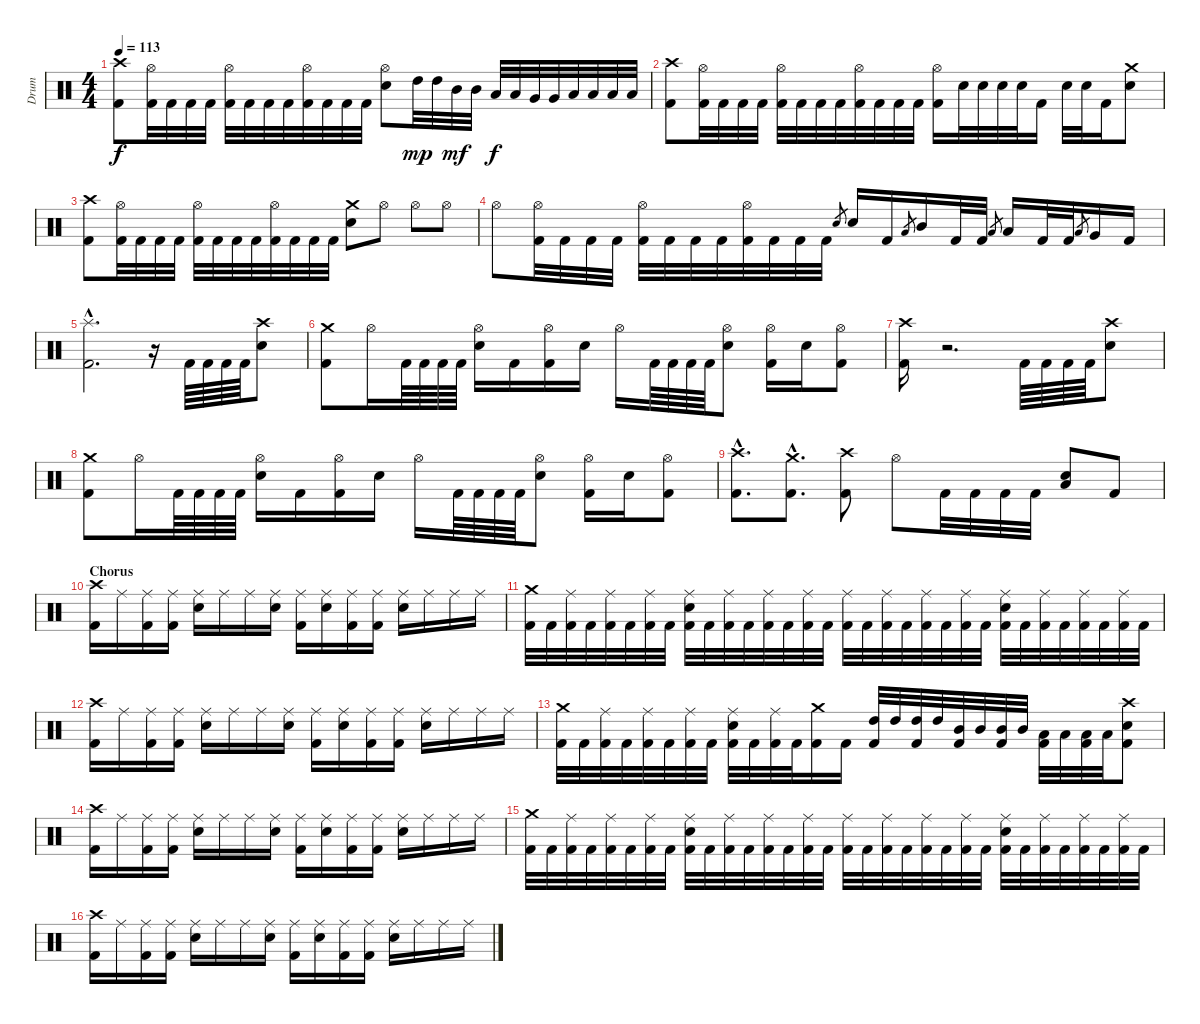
\track ("Drum" "Drum") {instrument percussion}
\staff {score}
\articulation defaults
\ts (4 4)
\tempo 113
\clef neutral
\ks c
("Crash high (hit)" "Kick (hit) 2").8{dy f} ("Hi-Hat (open)" "Kick (hit) 2").32 "Kick (hit) 2".32 "Kick (hit) 2".32 "Kick (hit) 2".32 ("Hi-Hat (open)" "Kick (hit) 2").32 "Kick (hit) 2".32 "Kick (hit) 2".32 "Kick (hit) 2".32 ("Hi-Hat (open)" "Kick (hit) 2").32 "Kick (hit) 2".32 "Kick (hit) 2".32 "Kick (hit) 2".32 ("Hi-Hat (open)" "Electric Snare (hit)").8 "High Tom (hit)".32{dy mp} "High Tom (hit)".32 "Mid Tom (hit)".32{dy mf} "Mid Tom (hit)".32 "Low Tom (hit)".32{dy f} "Low Tom (hit)".32 "Very Low Tom (hit)".32 "Very Low Tom (hit)".32 "Low Floor Tom (hit)".32 "Low Floor Tom (hit)".32 "Low Floor Tom (hit)".32 "Low Floor Tom (hit)".32 |
("Crash high (hit)" "Kick (hit) 2").8 ("Hi-Hat (open)" "Kick (hit) 2").32 "Kick (hit) 2".32 "Kick (hit) 2".32 "Kick (hit) 2".32 ("Hi-Hat (open)" "Kick (hit) 2").32 "Kick (hit) 2".32 "Kick (hit) 2".32 "Kick (hit) 2".32 ("Hi-Hat (open)" "Kick (hit) 2").32 "Kick (hit) 2".32 "Kick (hit) 2".32 "Kick (hit) 2".32 ("Hi-Hat (open)" "Kick (hit) 2").16 "Electric Snare (hit)".32 "Electric Snare (hit)".32 "Electric Snare (hit)".32 "Electric Snare (hit)".32 "Kick (hit) 2".16 "Electric Snare (hit)".32 "Electric Snare (hit)".32 "Kick (hit) 2".16 ("Crash medium (hit)" "Electric Snare (hit)").8 |
("Crash high (hit)" "Kick (hit) 2").8 ("Hi-Hat (open)" "Kick (hit) 2").32 "Kick (hit) 2".32 "Kick (hit) 2".32 "Kick (hit) 2".32 ("Hi-Hat (open)" "Kick (hit) 2").32 "Kick (hit) 2".32 "Kick (hit) 2".32 "Kick (hit) 2".32 ("Hi-Hat (open)" "Kick (hit) 2").32 "Kick (hit) 2".32 "Kick (hit) 2".32 "Kick (hit) 2".32 ("Crash medium (hit)" "Electric Snare (hit)").8 "Hi-Hat (open)".8 "Hi-Hat (open)".8 "Hi-Hat (open)".8 |
"Hi-Hat (open)".8 ("Hi-Hat (open)" "Kick (hit) 2").32 "Kick (hit) 2".32 "Kick (hit) 2".32 "Kick (hit) 2".32 ("Hi-Hat (open)" "Kick (hit) 2").32 "Kick (hit) 2".32 "Kick (hit) 2".32 "Kick (hit) 2".32 ("Hi-Hat (open)" "Kick (hit) 2").32 "Kick (hit) 2".32 "Kick (hit) 2".32 "Kick (hit) 2".32 "Electric Snare (hit)".8{gr} "Electric Snare (hit)".16 "Kick (hit) 2".16 "Low Floor Tom (hit)".8{gr} "Mid Tom (hit)".16 "Kick (hit) 2".32 "Kick (hit) 2".32 "Low Floor Tom (hit)".8{gr} "Low Tom (hit)".16 "Kick (hit) 2".32 "Kick (hit) 2".32 "Low Floor Tom (hit)".8{gr} "Very Low Tom (hit)".16 "Kick (hit) 2".16 |
("Splash (hit)"{hac} "Kick (hit) 2"{hac}).2{d} r.16 "Kick (hit) 2".64 "Kick (hit) 2".64 "Kick (hit) 2".64 "Kick (hit) 2".64 ("Crash high (hit)" "Electric Snare (hit)").8 |
("Crash medium (hit)" "Kick (hit) 2").8 "Hi-Hat (open)".16 "Kick (hit) 2".64 "Kick (hit) 2".64 "Kick (hit) 2".64 "Kick (hit) 2".64 ("Hi-Hat (open)" "Electric Snare (hit)").16 "Kick (hit) 2".16 ("Hi-Hat (open)" "Kick (hit) 2").16 "Electric Snare (hit)".16 "Hi-Hat (open)".16 "Kick (hit) 2".64 "Kick (hit) 2".64 "Kick (hit) 2".64 "Kick (hit) 2".64 ("Hi-Hat (open)" "Electric Snare (hit)").8 ("Hi-Hat (open)" "Kick (hit) 2").16 "Electric Snare (hit)".16 ("Hi-Hat (open)" "Kick (hit) 2").8 |
("Crash high (hit)" "Kick (hit) 2").16 r.2{d volume 0} "Kick (hit) 2".64{volume 16} "Kick (hit) 2".64 "Kick (hit) 2".64 "Kick (hit) 2".64 ("Crash high (hit)" "Electric Snare (hit)").8 |
("Crash medium (hit)" "Kick (hit) 2").8 "Hi-Hat (open)".16 "Kick (hit) 2".64 "Kick (hit) 2".64 "Kick (hit) 2".64 "Kick (hit) 2".64 ("Hi-Hat (open)" "Electric Snare (hit)").16 "Kick (hit) 2".16 ("Hi-Hat (open)" "Kick (hit) 2").16 "Electric Snare (hit)".16 "Hi-Hat (open)".16 "Kick (hit) 2".64 "Kick (hit) 2".64 "Kick (hit) 2".64 "Kick (hit) 2".64 ("Hi-Hat (open)" "Electric Snare (hit)").8 ("Hi-Hat (open)" "Kick (hit) 2").16 "Electric Snare (hit)".16 ("Hi-Hat (open)" "Kick (hit) 2").8 |
("Crash high (hit)"{hac} "Kick (hit) 2").8{d} ("Crash medium (hit)"{hac} "Kick (hit) 2").8{d} ("Crash high (hit)" "Kick (hit) 2").8 "Hi-Hat (open)".8 "Kick (hit) 2".32 "Kick (hit) 2".32 "Kick (hit) 2".32 "Kick (hit) 2".32 ("Low Floor Tom (hit)" "Electric Snare (hit)").8 "Kick (hit) 2".8 |
\section ("" "Chorus")
("Crash high (hit)" "Kick (hit) 2").16 "Ride (middle)".16 ("Ride (middle)" "Kick (hit) 2").16 ("Ride (middle)" "Kick (hit) 2").16 ("Ride (middle)" "Electric Snare (hit)").16 "Ride (middle)".16 "Ride (middle)".16 ("Ride (middle)" "Electric Snare (hit)").16 ("Ride (middle)" "Kick (hit) 2").16 ("Ride (middle)" "Electric Snare (hit)").16 ("Ride (middle)" "Kick (hit) 2").16 ("Ride (middle)" "Kick (hit) 2").16 ("Ride (middle)" "Electric Snare (hit)").16 "Ride (middle)".16 "Ride (middle)".16 "Ride (middle)".16 |
("Crash medium (hit)" "Kick (hit) 2").32 "Kick (hit) 2".32 ("Ride (middle)" "Kick (hit) 2").32 "Kick (hit) 2".32 ("Ride (middle)" "Kick (hit) 2").32 "Kick (hit) 2".32 ("Ride (middle)" "Kick (hit) 2").32 "Kick (hit) 2".32 ("Ride (middle)" "Electric Snare (hit)" "Kick (hit) 2").32 "Kick (hit) 2".32 ("Ride (middle)" "Kick (hit) 2").32 "Kick (hit) 2".32 ("Ride (middle)" "Kick (hit) 2").32 "Kick (hit) 2".32 ("Ride (middle)" "Kick (hit) 2").32 "Kick (hit) 2".32 ("Ride (middle)" "Kick (hit) 2").32 "Kick (hit) 2".32 ("Ride (middle)" "Kick (hit) 2").32 "Kick (hit) 2".32 ("Ride (middle)" "Kick (hit) 2").32 "Kick (hit) 2".32 ("Ride (middle)" "Kick (hit) 2").32 "Kick (hit) 2".32 ("Ride (middle)" "Electric Snare (hit)" "Kick (hit) 2").32 "Kick (hit) 2".32 ("Ride (middle)" "Kick (hit) 2").32 "Kick (hit) 2".32 ("Ride (middle)" "Kick (hit) 2").32 "Kick (hit) 2".32 ("Ride (middle)" "Kick (hit) 2").32 "Kick (hit) 2".32 |
("Crash high (hit)" "Kick (hit) 2").16 "Ride (middle)".16 ("Ride (middle)" "Kick (hit) 2").16 ("Ride (middle)" "Kick (hit) 2").16 ("Ride (middle)" "Electric Snare (hit)").16 "Ride (middle)".16 "Ride (middle)".16 ("Ride (middle)" "Electric Snare (hit)").16 ("Ride (middle)" "Kick (hit) 2").16 ("Ride (middle)" "Electric Snare (hit)").16 ("Ride (middle)" "Kick (hit) 2").16 ("Ride (middle)" "Kick (hit) 2").16 ("Ride (middle)" "Electric Snare (hit)").16 "Ride (middle)".16 "Ride (middle)".16 "Ride (middle)".16 |
("Crash medium (hit)" "Kick (hit) 2").32 "Kick (hit) 2".32 ("Ride (middle)" "Kick (hit) 2").32 "Kick (hit) 2".32 ("Ride (middle)" "Kick (hit) 2").32 "Kick (hit) 2".32 ("Ride (middle)" "Kick (hit) 2").32 "Kick (hit) 2".32 ("Ride (middle)" "Electric Snare (hit)" "Kick (hit) 2").32 "Kick (hit) 2".32 ("Ride (middle)" "Kick (hit) 2").32 "Kick (hit) 2".32 ("Crash medium (hit)" "Kick (hit) 2").16 "Kick (hit) 2".16 ("High Tom (hit)" "Kick (hit) 2").32 "High Tom (hit)".32 ("High Tom (hit)" "Kick (hit) 2").32 "High Tom (hit)".32 ("Mid Tom (hit)" "Kick (hit) 2").32 "Mid Tom (hit)".32 ("Mid Tom (hit)" "Kick (hit) 2").32 "Mid Tom (hit)".32 ("Low Tom (hit)" "Kick (hit) 2").32 "Low Tom (hit)".32 ("Low Tom (hit)" "Kick (hit) 2").32 "Low Tom (hit)".32 ("Crash high (hit)" "Electric Snare (hit)" "Kick (hit) 2").8 |
("Crash high (hit)" "Kick (hit) 2").16 "Ride (middle)".16 ("Ride (middle)" "Kick (hit) 2").16 ("Ride (middle)" "Kick (hit) 2").16 ("Ride (middle)" "Electric Snare (hit)").16 "Ride (middle)".16 "Ride (middle)".16 ("Ride (middle)" "Electric Snare (hit)").16 ("Ride (middle)" "Kick (hit) 2").16 ("Ride (middle)" "Electric Snare (hit)").16 ("Ride (middle)" "Kick (hit) 2").16 ("Ride (middle)" "Kick (hit) 2").16 ("Ride (middle)" "Electric Snare (hit)").16 "Ride (middle)".16 "Ride (middle)".16 "Ride (middle)".16 |
("Crash medium (hit)" "Kick (hit) 2").32 "Kick (hit) 2".32 ("Ride (middle)" "Kick (hit) 2").32 "Kick (hit) 2".32 ("Ride (middle)" "Kick (hit) 2").32 "Kick (hit) 2".32 ("Ride (middle)" "Kick (hit) 2").32 "Kick (hit) 2".32 ("Ride (middle)" "Electric Snare (hit)" "Kick (hit) 2").32 "Kick (hit) 2".32 ("Ride (middle)" "Kick (hit) 2").32 "Kick (hit) 2".32 ("Ride (middle)" "Kick (hit) 2").32 "Kick (hit) 2".32 ("Ride (middle)" "Kick (hit) 2").32 "Kick (hit) 2".32 ("Ride (middle)" "Kick (hit) 2").32 "Kick (hit) 2".32 ("Ride (middle)" "Kick (hit) 2").32 "Kick (hit) 2".32 ("Ride (middle)" "Kick (hit) 2").32 "Kick (hit) 2".32 ("Ride (middle)" "Kick (hit) 2").32 "Kick (hit) 2".32 ("Ride (middle)" "Electric Snare (hit)" "Kick (hit) 2").32 "Kick (hit) 2".32 ("Ride (middle)" "Kick (hit) 2").32 "Kick (hit) 2".32 ("Ride (middle)" "Kick (hit) 2").32 "Kick (hit) 2".32 ("Ride (middle)" "Kick (hit) 2").32 "Kick (hit) 2".32 |
("Crash high (hit)" "Kick (hit) 2").16 "Ride (middle)".16 ("Ride (middle)" "Kick (hit) 2").16 ("Ride (middle)" "Kick (hit) 2").16 ("Ride (middle)" "Electric Snare (hit)").16 "Ride (middle)".16 "Ride (middle)".16 ("Ride (middle)" "Electric Snare (hit)").16 ("Ride (middle)" "Kick (hit) 2").16 ("Ride (middle)" "Electric Snare (hit)").16 ("Ride (middle)" "Kick (hit) 2").16 ("Ride (middle)" "Kick (hit) 2").16 ("Ride (middle)" "Electric Snare (hit)").16 "Ride (middle)".16 "Ride (middle)".16 "Ride (middle)".16
